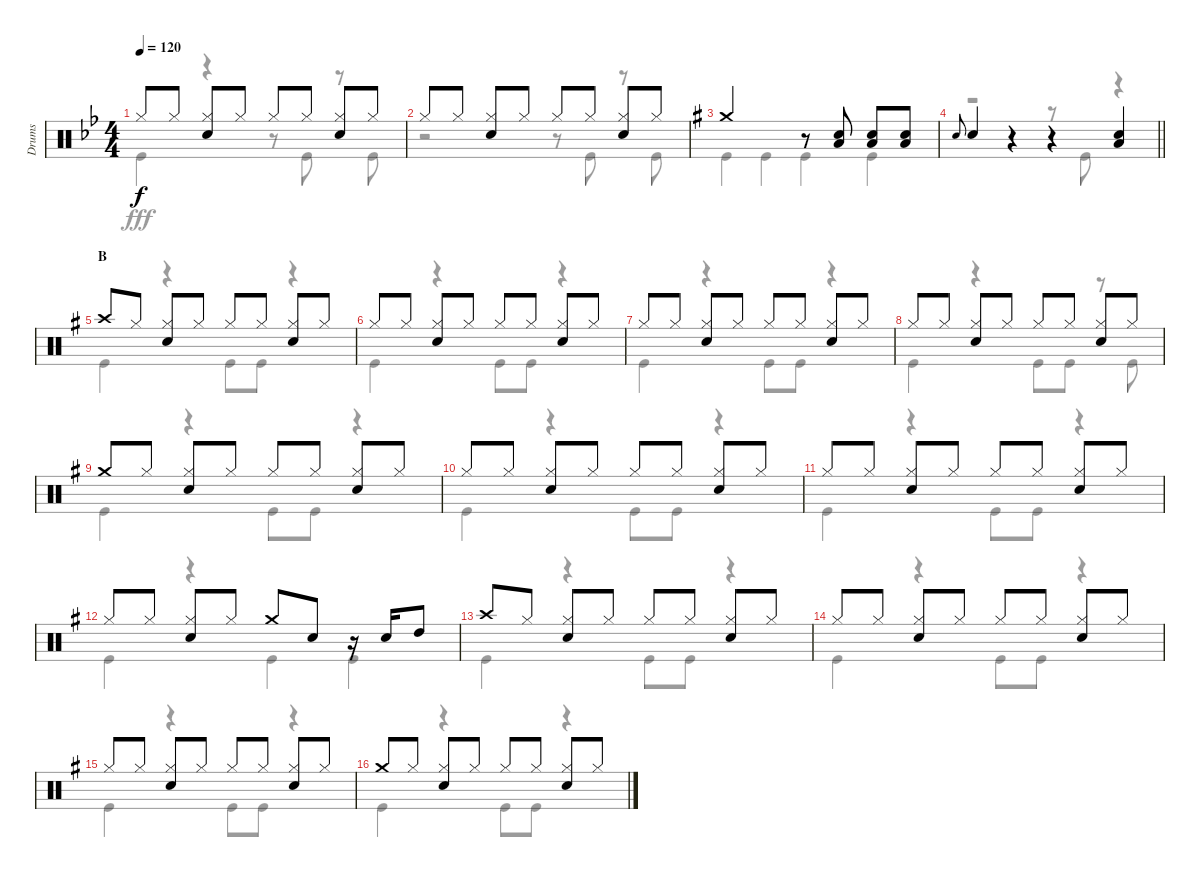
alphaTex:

\track ("Drums" "Drums") {instrument percussion}
\staff {score}
\articulation defaults
\voice
\ts (4 4)
\tempo 120
\clef neutral
\ks bb "Hi-Hat (closed)".8{dy f} "Hi-Hat (closed)".8
("Hi-Hat (closed)" "Snare (hit) 2").8 "Hi-Hat (closed)".8 "Hi-Hat (closed)".8 "Hi-Hat (closed)".8 ("Hi-Hat (closed)" "Snare (hit) 2").8 "Hi-Hat (closed)".8 |
"Hi-Hat (closed)".8 "Hi-Hat (closed)".8 ("Hi-Hat (closed)" "Snare (hit) 2").8 "Hi-Hat (closed)".8 "Hi-Hat (closed)".8 "Hi-Hat (closed)".8 ("Hi-Hat (closed)" "Snare (hit) 2").8 "Hi-Hat (closed)".8 |
\ks g "Crash medium (hit)".2
r.8 ("Snare (hit) 2" "Low Tom (hit)").8 ("Snare (hit) 2" "Low Tom (hit)").8 ("Snare (hit) 2" "Low Tom (hit)").8 |
\barLineRight lightlight "Snare (hit) 2".8{gr onbeat} "Snare (hit) 2".4
r.4 r.4 ("Snare (hit) 2" "Low Tom (hit)").4 |
\section ("" "B")
"Crash high (hit)".8 "Hi-Hat (closed)".8 ("Hi-Hat (closed)" "Snare (hit) 2").8 "Hi-Hat (closed)".8 "Hi-Hat (closed)".8 "Hi-Hat (closed)".8 ("Hi-Hat (closed)" "Snare (hit) 2").8 "Hi-Hat (closed)".8 |
"Hi-Hat (closed)".8 "Hi-Hat (closed)".8 ("Hi-Hat (closed)" "Snare (hit) 2").8 "Hi-Hat (closed)".8 "Hi-Hat (closed)".8 "Hi-Hat (closed)".8 ("Hi-Hat (closed)" "Snare (hit) 2").8 "Hi-Hat (closed)".8 |
"Hi-Hat (closed)".8 "Hi-Hat (closed)".8 ("Hi-Hat (closed)" "Snare (hit) 2").8 "Hi-Hat (closed)".8 "Hi-Hat (closed)".8 "Hi-Hat (closed)".8 ("Hi-Hat (closed)" "Snare (hit) 2").8 "Hi-Hat (closed)".8 |
"Hi-Hat (closed)".8 "Hi-Hat (closed)".8 ("Hi-Hat (closed)" "Snare (hit) 2").8 "Hi-Hat (closed)".8 "Hi-Hat (closed)".8 "Hi-Hat (closed)".8 ("Hi-Hat (closed)" "Snare (hit) 2").8 "Hi-Hat (closed)".8 |
"Crash medium (hit)".8 "Hi-Hat (closed)".8 ("Hi-Hat (closed)" "Snare (hit) 2").8 "Hi-Hat (closed)".8 "Hi-Hat (closed)".8 "Hi-Hat (closed)".8 ("Hi-Hat (closed)" "Snare (hit) 2").8 "Hi-Hat (closed)".8 |
"Hi-Hat (closed)".8 "Hi-Hat (closed)".8 ("Hi-Hat (closed)" "Snare (hit) 2").8 "Hi-Hat (closed)".8 "Hi-Hat (closed)".8 "Hi-Hat (closed)".8 ("Hi-Hat (closed)" "Snare (hit) 2").8 "Hi-Hat (closed)".8 |
"Hi-Hat (closed)".8 "Hi-Hat (closed)".8 ("Hi-Hat (closed)" "Snare (hit) 2").8 "Hi-Hat (closed)".8 "Hi-Hat (closed)".8 "Hi-Hat (closed)".8 ("Hi-Hat (closed)" "Snare (hit) 2").8 "Hi-Hat (closed)".8 |
"Hi-Hat (closed)".8 "Hi-Hat (closed)".8 ("Hi-Hat (closed)" "Snare (hit) 2").8 "Hi-Hat (closed)".8 "Crash medium (hit)".8 "Snare (hit) 2".8 r.16 "Snare (hit) 2".16 "High Tom (hit)".8 |
"Crash high (hit)".8 "Hi-Hat (closed)".8 ("Hi-Hat (closed)" "Snare (hit) 2").8 "Hi-Hat (closed)".8 "Hi-Hat (closed)".8 "Hi-Hat (closed)".8 ("Hi-Hat (closed)" "Snare (hit) 2").8 "Hi-Hat (closed)".8 |
"Hi-Hat (closed)".8 "Hi-Hat (closed)".8 ("Hi-Hat (closed)" "Snare (hit) 2").8 "Hi-Hat (closed)".8 "Hi-Hat (closed)".8 "Hi-Hat (closed)".8 ("Hi-Hat (closed)" "Snare (hit) 2").8 "Hi-Hat (closed)".8 |
"Hi-Hat (closed)".8 "Hi-Hat (closed)".8 ("Hi-Hat (closed)" "Snare (hit) 2").8 "Hi-Hat (closed)".8 "Hi-Hat (closed)".8 "Hi-Hat (closed)".8 ("Hi-Hat (closed)" "Snare (hit) 2").8 "Hi-Hat (closed)".8 |
"Crash medium (hit)".8 "Hi-Hat (closed)".8 ("Hi-Hat (closed)" "Snare (hit) 2").8 "Hi-Hat (closed)".8 "Hi-Hat (closed)".8 "Hi-Hat (closed)".8 ("Hi-Hat (closed)" "Snare (hit) 2").8 "Hi-Hat (closed)".8
\voice
\clef neutral
\ottava regular
\simile none
\ks bb "Kick (hit)".4{dy fff}
r.4 r.8 "Kick (hit)".8 r.8 "Kick (hit)".8 |
r.2 r.8 "Kick (hit)".8 r.8 "Kick (hit)".8 |
\ks g "Kick (hit)".4 "Kick (hit)".4 "Kick (hit)".4 "Kick (hit)".4
|
\barLineRight lightlight
r.2 r.8 "Kick (hit)".8 r.4 |
"Kick (hit)".4 r.4 "Kick (hit)".8 "Kick (hit)".8 r.4 |
"Kick (hit)".4 r.4 "Kick (hit)".8 "Kick (hit)".8 r.4 |
"Kick (hit)".4 r.4 "Kick (hit)".8 "Kick (hit)".8 r.4 |
"Kick (hit)".4 r.4 "Kick (hit)".8 "Kick (hit)".8 r.8 "Kick (hit)".8 |
"Kick (hit)".4 r.4 "Kick (hit)".8 "Kick (hit)".8 r.4 |
"Kick (hit)".4 r.4 "Kick (hit)".8 "Kick (hit)".8 r.4 |
"Kick (hit)".4 r.4 "Kick (hit)".8 "Kick (hit)".8 r.4 |
"Kick (hit)".4 r.4 "Kick (hit)".4 "Kick (hit)".4 |
"Kick (hit)".4 r.4 "Kick (hit)".8 "Kick (hit)".8 r.4 |
"Kick (hit)".4 r.4 "Kick (hit)".8 "Kick (hit)".8 r.4 |
"Kick (hit)".4 r.4 "Kick (hit)".8 "Kick (hit)".8 r.4 |
"Kick (hit)".4 r.4 "Kick (hit)".8 "Kick (hit)".8 r.4
